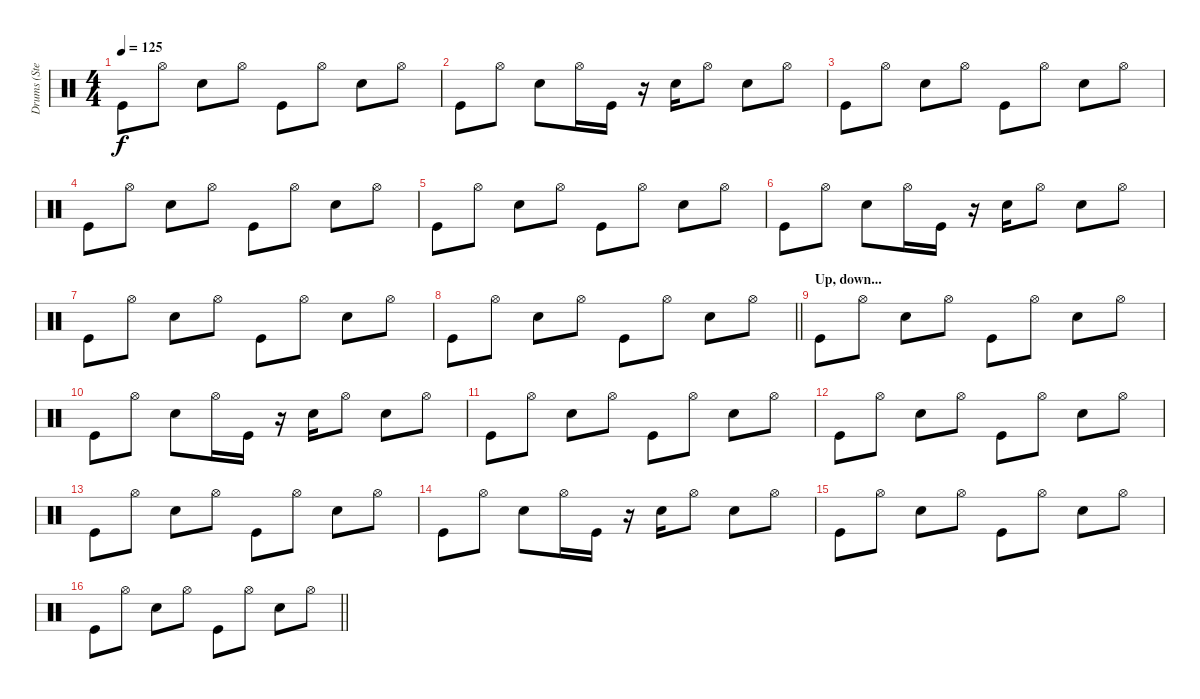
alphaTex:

\track ("Drums (Stephen Morris)" "Drums (Ste") {instrument percussion}
\staff {score}
\articulation defaults
\ts (4 4)
\tempo 125
\clef neutral
\ks c "Kick (hit)".8{dy f} "Hi-Hat (open)".8 "Electric Snare (hit)".8 "Hi-Hat (open)".8 "Kick (hit)".8 "Hi-Hat (open)".8 "Electric Snare (hit)".8 "Hi-Hat (open)".8
|
"Kick (hit)".8 "Hi-Hat (open)".8 "Electric Snare (hit)".8 "Hi-Hat (open)".16 "Kick (hit)".16 r.16 "Electric Snare (hit)".16 "Hi-Hat (open)".8 "Electric Snare (hit)".8 "Hi-Hat (open)".8 |
"Kick (hit)".8 "Hi-Hat (open)".8 "Electric Snare (hit)".8 "Hi-Hat (open)".8 "Kick (hit)".8 "Hi-Hat (open)".8 "Electric Snare (hit)".8 "Hi-Hat (open)".8 |
"Kick (hit)".8 "Hi-Hat (open)".8 "Electric Snare (hit)".8 "Hi-Hat (open)".8 "Kick (hit)".8 "Hi-Hat (open)".8 "Electric Snare (hit)".8 "Hi-Hat (open)".8 |
"Kick (hit)".8 "Hi-Hat (open)".8 "Electric Snare (hit)".8 "Hi-Hat (open)".8 "Kick (hit)".8 "Hi-Hat (open)".8 "Electric Snare (hit)".8 "Hi-Hat (open)".8 |
"Kick (hit)".8 "Hi-Hat (open)".8 "Electric Snare (hit)".8 "Hi-Hat (open)".16 "Kick (hit)".16 r.16 "Electric Snare (hit)".16 "Hi-Hat (open)".8 "Electric Snare (hit)".8 "Hi-Hat (open)".8 |
"Kick (hit)".8 "Hi-Hat (open)".8 "Electric Snare (hit)".8 "Hi-Hat (open)".8 "Kick (hit)".8 "Hi-Hat (open)".8 "Electric Snare (hit)".8 "Hi-Hat (open)".8 |
\barLineRight lightlight "Kick (hit)".8 "Hi-Hat (open)".8 "Electric Snare (hit)".8 "Hi-Hat (open)".8 "Kick (hit)".8 "Hi-Hat (open)".8 "Electric Snare (hit)".8 "Hi-Hat (open)".8
|
\section ("" "Up, down...")
"Kick (hit)".8 "Hi-Hat (open)".8 "Electric Snare (hit)".8 "Hi-Hat (open)".8 "Kick (hit)".8 "Hi-Hat (open)".8 "Electric Snare (hit)".8 "Hi-Hat (open)".8 |
"Kick (hit)".8 "Hi-Hat (open)".8 "Electric Snare (hit)".8 "Hi-Hat (open)".16 "Kick (hit)".16 r.16 "Electric Snare (hit)".16 "Hi-Hat (open)".8 "Electric Snare (hit)".8 "Hi-Hat (open)".8 |
"Kick (hit)".8 "Hi-Hat (open)".8 "Electric Snare (hit)".8 "Hi-Hat (open)".8 "Kick (hit)".8 "Hi-Hat (open)".8 "Electric Snare (hit)".8 "Hi-Hat (open)".8 |
"Kick (hit)".8 "Hi-Hat (open)".8 "Electric Snare (hit)".8 "Hi-Hat (open)".8 "Kick (hit)".8 "Hi-Hat (open)".8 "Electric Snare (hit)".8 "Hi-Hat (open)".8 |
"Kick (hit)".8 "Hi-Hat (open)".8 "Electric Snare (hit)".8 "Hi-Hat (open)".8 "Kick (hit)".8 "Hi-Hat (open)".8 "Electric Snare (hit)".8 "Hi-Hat (open)".8 |
"Kick (hit)".8 "Hi-Hat (open)".8 "Electric Snare (hit)".8 "Hi-Hat (open)".16 "Kick (hit)".16 r.16 "Electric Snare (hit)".16 "Hi-Hat (open)".8 "Electric Snare (hit)".8 "Hi-Hat (open)".8 |
"Kick (hit)".8 "Hi-Hat (open)".8 "Electric Snare (hit)".8 "Hi-Hat (open)".8 "Kick (hit)".8 "Hi-Hat (open)".8 "Electric Snare (hit)".8 "Hi-Hat (open)".8 |
\barLineRight lightlight "Kick (hit)".8 "Hi-Hat (open)".8 "Electric Snare (hit)".8 "Hi-Hat (open)".8 "Kick (hit)".8 "Hi-Hat (open)".8 "Electric Snare (hit)".8 "Hi-Hat (open)".8
